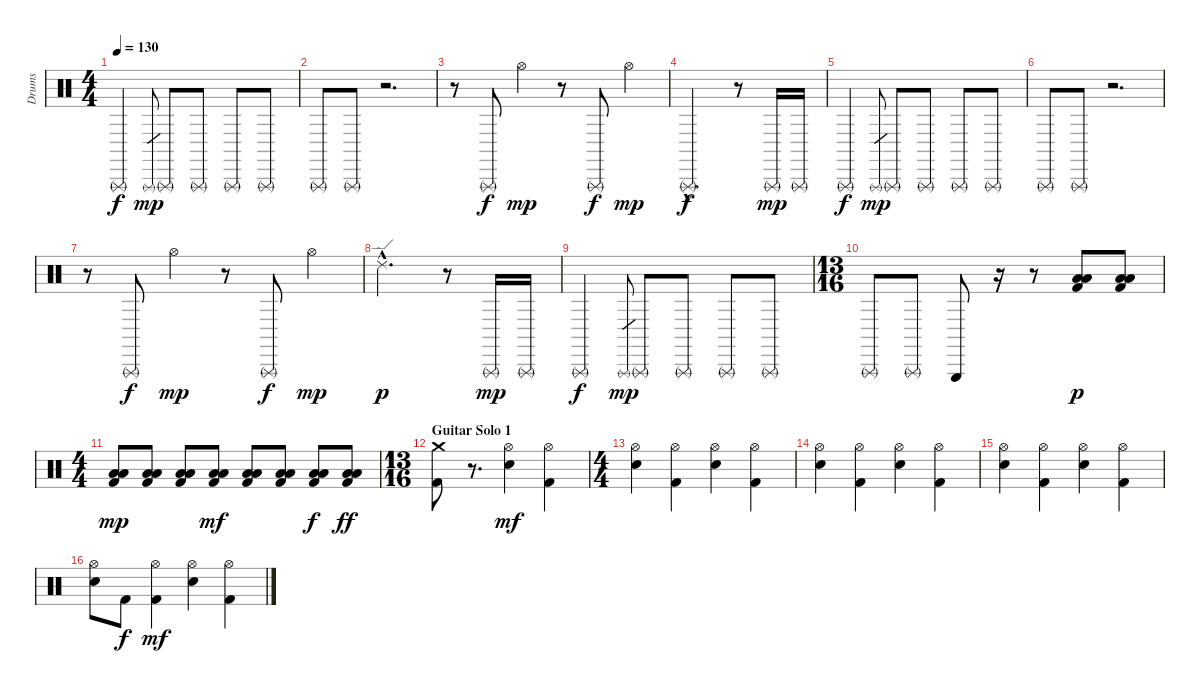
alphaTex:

\track ("Drums" "Drums") {instrument percussion}
\staff {score}
\articulation defaults
\ts (4 4)
\tempo 130
\clef neutral
\ks c "Triangle (rnute)".2{dy f} "Triangle (rnute)".8{gr dy mp} "Triangle (rnute)".8 "Triangle (rnute)".8 "Triangle (rnute)".8 "Triangle (rnute)".8
|
"Triangle (rnute)".8 "Triangle (rnute)".8 r.2{d} |
r.8 "Triangle (rnute)".8{dy f} "Hi-Hat (open)".4{dy mp} r.8 "Triangle (rnute)".8{dy f} "Hi-Hat (open)".4{dy mp} |
"Triangle (rnute)"{hac}.2{d dy f} r.8 "Triangle (rnute)".16{dy mp} "Triangle (rnute)".16 |
"Triangle (rnute)".2{dy f} "Triangle (rnute)".8{gr dy mp} "Triangle (rnute)".8 "Triangle (rnute)".8 "Triangle (rnute)".8 "Triangle (rnute)".8 |
"Triangle (rnute)".8 "Triangle (rnute)".8 r.2{d} |
r.8 "Triangle (rnute)".8{dy f} "Hi-Hat (open)".4{dy mp} r.8 "Triangle (rnute)".8{dy f} "Hi-Hat (open)".4{dy mp} |
"Ride (edge) 2"{hac}.2{d dy p} r.8 "Triangle (rnute)".16{dy mp} "Triangle (rnute)".16 |
"Triangle (rnute)".2{dy f} "Triangle (rnute)".8{gr dy mp} "Triangle (rnute)".8 "Triangle (rnute)".8 "Triangle (rnute)".8 "Triangle (rnute)".8 |
\ts (13 16)
"Triangle (rnute)".8 "Triangle (rnute)".8 "Triangle (hit)".8 r.16 r.8 ("Kick (hit) 2" "Low Tom (hit)" "Low Floor Tom (hit)").8{dy p} ("Kick (hit) 2" "Low Tom (hit)" "Low Floor Tom (hit)").8 |
\ts (4 4)
("Kick (hit) 2" "Low Tom (hit)" "Low Floor Tom (hit)").8{dy mp} ("Kick (hit) 2" "Low Tom (hit)" "Low Floor Tom (hit)").8 ("Kick (hit) 2" "Low Tom (hit)" "Low Floor Tom (hit)").8 ("Kick (hit) 2" "Low Tom (hit)" "Low Floor Tom (hit)").8{dy mf} ("Kick (hit) 2" "Low Tom (hit)" "Low Floor Tom (hit)").8 ("Kick (hit) 2" "Low Tom (hit)" "Low Floor Tom (hit)").8 ("Kick (hit) 2" "Low Tom (hit)" "Low Floor Tom (hit)").8{dy f} ("Kick (hit) 2" "Low Tom (hit)" "Low Floor Tom (hit)").8{dy ff} |
\ts (13 16)
\section ("" "Guitar Solo 1")
("Kick (hit) 2" "Crash medium (hit)").8 r.8{d} ("Hi-Hat (open)" "Snare (hit) 2").4{dy mf} ("Kick (hit) 2" "Hi-Hat (open)").4 |
\ts (4 4)
("Hi-Hat (open)" "Snare (hit) 2").4 ("Kick (hit) 2" "Hi-Hat (open)").4 ("Hi-Hat (open)" "Snare (hit) 2").4 ("Kick (hit) 2" "Hi-Hat (open)").4 |
("Hi-Hat (open)" "Snare (hit) 2").4 ("Kick (hit) 2" "Hi-Hat (open)").4 ("Hi-Hat (open)" "Snare (hit) 2").4 ("Kick (hit) 2" "Hi-Hat (open)").4 |
("Hi-Hat (open)" "Snare (hit) 2").4 ("Kick (hit) 2" "Hi-Hat (open)").4 ("Hi-Hat (open)" "Snare (hit) 2").4 ("Kick (hit) 2" "Hi-Hat (open)").4 |
("Hi-Hat (open)" "Snare (hit) 2").8 "Kick (hit) 2".8{dy f} ("Kick (hit) 2" "Hi-Hat (open)").4{dy mf} ("Hi-Hat (open)" "Snare (hit) 2").4 ("Kick (hit) 2" "Hi-Hat (open)").4
